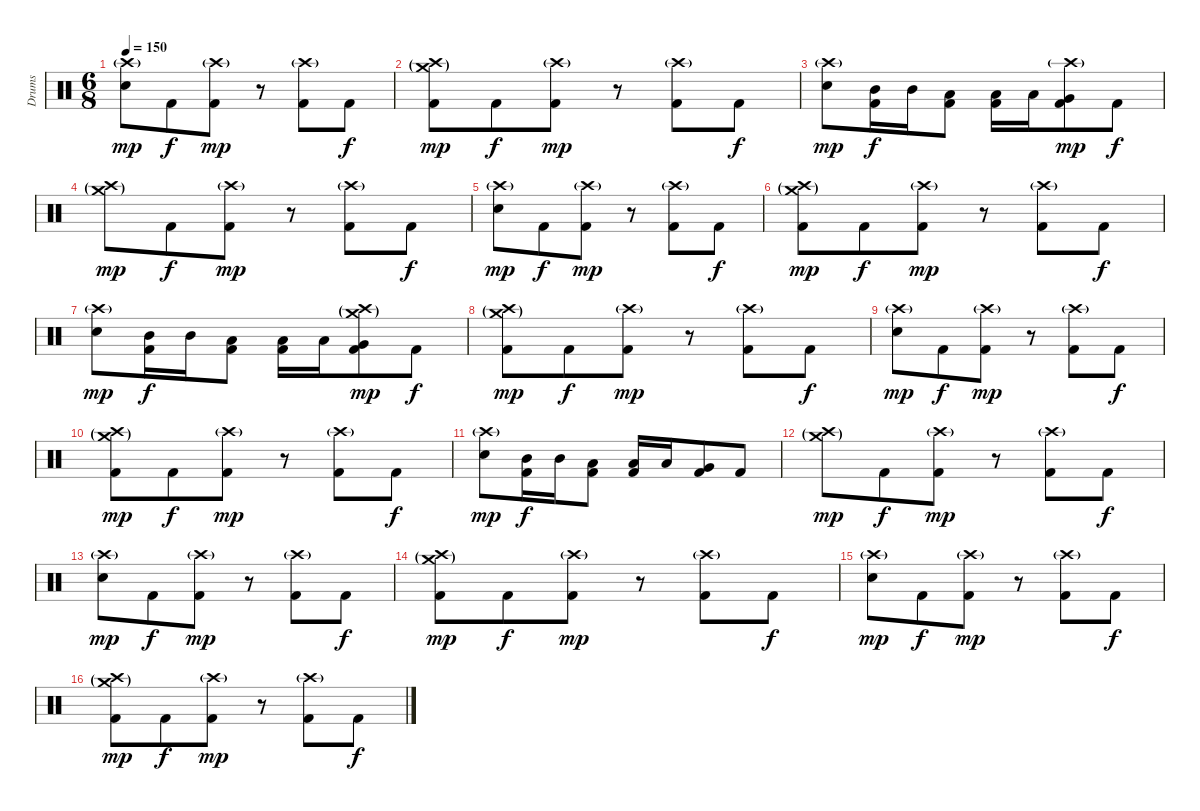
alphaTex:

\track ("Drums" "Drums") {mute instrument percussion}
\staff {score}
\articulation defaults
\ts (6 8)
\tempo 150
\clef neutral
\ks c
("Crash high (hit)"{g} "Electric Snare (hit)").8{dy mp} "Kick (hit) 2".8{dy f} ("Crash high (hit)"{g} "Kick (hit) 2").8{dy mp} r.8 ("Crash high (hit)"{g} "Kick (hit) 2").8 "Kick (hit) 2".8{dy f} |
("Crash medium (hit)"{g} "Crash high (hit)"{g} "Kick (hit) 2").8{dy mp} "Kick (hit) 2".8{dy f} ("Crash high (hit)"{g} "Kick (hit) 2").8{dy mp} r.8 ("Crash high (hit)"{g} "Kick (hit) 2").8 "Kick (hit) 2".8{dy f} |
("Crash high (hit)"{g} "Electric Snare (hit)").8{dy mp} ("Mid Tom (hit)" "Kick (hit) 2").16{dy f} "Mid Tom (hit)".16 ("Low Tom (hit)" "Kick (hit) 2").8 ("Low Tom (hit)" "Kick (hit) 2").16 "Low Tom (hit)".16 ("Crash high (hit)"{g} "Very Low Tom (hit)" "Kick (hit) 2").8{dy mp} "Kick (hit) 2".8{dy f} |
("Crash medium (hit)"{g} "Crash high (hit)"{g}).8{dy mp} "Kick (hit) 2".8{dy f} ("Crash high (hit)"{g} "Kick (hit) 2").8{dy mp} r.8 ("Crash high (hit)"{g} "Kick (hit) 2").8 "Kick (hit) 2".8{dy f} |
("Crash high (hit)"{g} "Electric Snare (hit)").8{dy mp} "Kick (hit) 2".8{dy f} ("Crash high (hit)"{g} "Kick (hit) 2").8{dy mp} r.8 ("Crash high (hit)"{g} "Kick (hit) 2").8 "Kick (hit) 2".8{dy f} |
("Crash medium (hit)"{g} "Crash high (hit)"{g} "Kick (hit) 2").8{dy mp} "Kick (hit) 2".8{dy f} ("Crash high (hit)"{g} "Kick (hit) 2").8{dy mp} r.8 ("Crash high (hit)"{g} "Kick (hit) 2").8 "Kick (hit) 2".8{dy f} |
("Crash high (hit)"{g} "Electric Snare (hit)").8{dy mp} ("Mid Tom (hit)" "Kick (hit) 2").16{dy f} "Mid Tom (hit)".16 ("Low Tom (hit)" "Kick (hit) 2").8 ("Low Tom (hit)" "Kick (hit) 2").16 "Low Tom (hit)".16 ("Crash medium (hit)"{g} "Crash high (hit)"{g} "Very Low Tom (hit)" "Kick (hit) 2").8{dy mp} "Kick (hit) 2".8{dy f} |
("Crash medium (hit)"{g} "Crash high (hit)"{g} "Kick (hit) 2").8{dy mp} "Kick (hit) 2".8{dy f} ("Crash high (hit)"{g} "Kick (hit) 2").8{dy mp} r.8 ("Crash high (hit)"{g} "Kick (hit) 2").8 "Kick (hit) 2".8{dy f} |
("Crash high (hit)"{g} "Electric Snare (hit)").8{dy mp} "Kick (hit) 2".8{dy f} ("Crash high (hit)"{g} "Kick (hit) 2").8{dy mp} r.8 ("Crash high (hit)"{g} "Kick (hit) 2").8 "Kick (hit) 2".8{dy f} |
("Crash medium (hit)"{g} "Crash high (hit)"{g} "Kick (hit) 2").8{dy mp} "Kick (hit) 2".8{dy f} ("Crash high (hit)"{g} "Kick (hit) 2").8{dy mp} r.8 ("Crash high (hit)"{g} "Kick (hit) 2").8 "Kick (hit) 2".8{dy f} |
("Crash high (hit)"{g} "Electric Snare (hit)").8{dy mp} ("Mid Tom (hit)" "Kick (hit) 2").16{dy f} "Mid Tom (hit)".16 ("Low Tom (hit)" "Kick (hit) 2").8 ("Low Tom (hit)" "Kick (hit) 2").16 "Low Tom (hit)".16 ("Very Low Tom (hit)" "Kick (hit) 2").8 "Kick (hit) 2".8 |
("Crash medium (hit)"{g} "Crash high (hit)"{g}).8{dy mp} "Kick (hit) 2".8{dy f} ("Crash high (hit)"{g} "Kick (hit) 2").8{dy mp} r.8 ("Crash high (hit)"{g} "Kick (hit) 2").8 "Kick (hit) 2".8{dy f} |
("Crash high (hit)"{g} "Electric Snare (hit)").8{dy mp} "Kick (hit) 2".8{dy f} ("Crash high (hit)"{g} "Kick (hit) 2").8{dy mp} r.8 ("Crash high (hit)"{g} "Kick (hit) 2").8 "Kick (hit) 2".8{dy f} |
("Crash medium (hit)"{g} "Crash high (hit)"{g} "Kick (hit) 2").8{dy mp} "Kick (hit) 2".8{dy f} ("Crash high (hit)"{g} "Kick (hit) 2").8{dy mp} r.8 ("Crash high (hit)"{g} "Kick (hit) 2").8 "Kick (hit) 2".8{dy f} |
("Crash high (hit)"{g} "Electric Snare (hit)").8{dy mp} "Kick (hit) 2".8{dy f} ("Crash high (hit)"{g} "Kick (hit) 2").8{dy mp} r.8 ("Crash high (hit)"{g} "Kick (hit) 2").8 "Kick (hit) 2".8{dy f} |
("Crash medium (hit)"{g} "Crash high (hit)"{g} "Kick (hit) 2").8{dy mp} "Kick (hit) 2".8{dy f} ("Crash high (hit)"{g} "Kick (hit) 2").8{dy mp} r.8 ("Crash high (hit)"{g} "Kick (hit) 2").8 "Kick (hit) 2".8{dy f}
